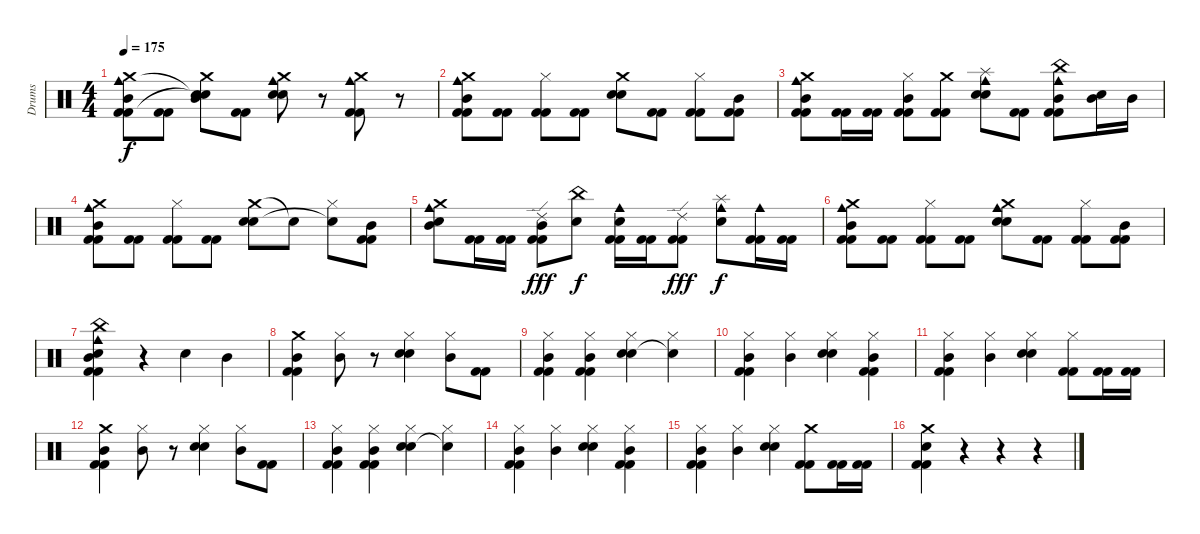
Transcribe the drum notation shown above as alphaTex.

\track ("Drums" "Drums") {instrument percussion}
\staff {score}
\articulation defaults
\ts (4 4)
\tempo 175
\clef neutral
\ks c
("Crash medium (hit)" "Mid Tom (hit)" "Cowbell medium (hit)" "Kick (hit) 2" "Kick (hit) 2").8{dy f} ("Kick (hit) 2" "Kick (hit) 2").8 ("Crash medium (hit)" "Mid Tom (hit)" "Snare (hit)"{t} "Snare (hit)"{t}).8 ("Kick (hit) 2" "Kick (hit) 2").8 ("Crash medium (hit)" "Electric Snare (hit)" "Snare (hit) 2" "Cowbell medium (hit)").8 r.8 ("Crash medium (hit)" "Cowbell medium (hit)" "Kick (hit) 2" "Kick (hit) 2").8 r.8 |
("Crash medium (hit)" "Mid Tom (hit)" "Cowbell medium (hit)" "Kick (hit) 2" "Kick (hit) 2").8 ("Kick (hit) 2" "Kick (hit) 2").8 ("Hi-Hat (closed)" "Kick (hit) 2" "Kick (hit) 2").8 ("Kick (hit) 2" "Kick (hit) 2").8 ("Crash medium (hit)" "Electric Snare (hit)" "Snare (hit) 2").8 ("Kick (hit) 2" "Kick (hit) 2").8 ("Hi-Hat (closed)" "Kick (hit) 2" "Kick (hit) 2").8 ("Mid Tom (hit)" "Kick (hit) 2" "Kick (hit) 2").8 |
("Crash medium (hit)" "Mid Tom (hit)" "Cowbell medium (hit)" "Kick (hit) 2" "Kick (hit) 2").8 ("Kick (hit) 2" "Kick (hit) 2").16 ("Kick (hit) 2" "Kick (hit) 2").16 ("Hi-Hat (closed)" "Mid Tom (hit)" "Kick (hit) 2" "Kick (hit) 2").8 ("Crash medium (hit)" "Kick (hit) 2" "Kick (hit) 2").8 ("Splash (hit)" "Electric Snare (hit)" "Snare (hit) 2" "Cowbell medium (hit)").8 ("Kick (hit) 2" "Kick (hit) 2").8 ("China (hit)" "Mid Tom (hit)" "Cowbell medium (hit)" "Kick (hit) 2" "Kick (hit) 2").8 ("Mid Tom (hit)" "Snare (hit) 2").16 "Mid Tom (hit)".16 |
("Crash medium (hit)" "Mid Tom (hit)" "Cowbell medium (hit)" "Kick (hit) 2" "Kick (hit) 2").8 ("Kick (hit) 2" "Kick (hit) 2").8 ("Hi-Hat (closed)" "Kick (hit) 2" "Kick (hit) 2").8 ("Kick (hit) 2" "Kick (hit) 2").8 ("Crash medium (hit)" "Electric Snare (hit)" "Snare (hit) 2").8 "Snare (hit)"{t}.8 ("Hi-Hat (closed)" "Snare (hit)"{t}).8 ("Mid Tom (hit)" "Kick (hit) 2" "Kick (hit) 2").8 |
("Crash medium (hit)" "Mid Tom (hit)" "Snare (hit) 2" "Cowbell medium (hit)").8 ("Kick (hit) 2" "Kick (hit) 2").16 ("Kick (hit) 2" "Kick (hit) 2").16 ("Ride (edge) 2" "Mid Tom (hit)" "Kick (hit) 2" "Kick (hit) 2").8{dy fff} ("China (hit)" "Snare (hit) 2").8{dy f} ("Electric Snare (hit)" "Cowbell medium (hit)" "Kick (hit) 2" "Kick (hit) 2").16 ("Kick (hit) 2" "Kick (hit) 2").16 ("Ride (edge) 2" "Kick (hit) 2" "Kick (hit) 2").8{dy fff} ("Splash (hit)" "Snare (hit) 2" "Cowbell medium (hit)").8{dy f} ("Cowbell medium (hit)" "Kick (hit) 2" "Kick (hit) 2").16 ("Kick (hit) 2" "Kick (hit) 2").16 |
("Crash medium (hit)" "Mid Tom (hit)" "Cowbell medium (hit)" "Kick (hit) 2" "Kick (hit) 2").8 ("Kick (hit) 2" "Kick (hit) 2").8 ("Hi-Hat (closed)" "Kick (hit) 2" "Kick (hit) 2").8 ("Kick (hit) 2" "Kick (hit) 2").8 ("Crash medium (hit)" "Electric Snare (hit)" "Snare (hit) 2" "Cowbell medium (hit)").8 ("Kick (hit) 2" "Kick (hit) 2").8 ("Hi-Hat (closed)" "Kick (hit) 2" "Kick (hit) 2").8 ("Mid Tom (hit)" "Kick (hit) 2" "Kick (hit) 2").8 |
("China (hit)" "Electric Snare (hit)" "Mid Tom (hit)" "Cowbell medium (hit)" "Kick (hit) 2" "Kick (hit) 2").4 r.4 "Electric Snare (hit)".4 "Mid Tom (hit)".4 |
("Crash medium (hit)" "Mid Tom (hit)" "Kick (hit) 2" "Kick (hit) 2").4 ("Hi-Hat (closed)" "Mid Tom (hit)").8 r.8 ("Hi-Hat (closed)" "Electric Snare (hit)" "Snare (hit) 2").4 ("Hi-Hat (closed)" "Mid Tom (hit)").8 ("Kick (hit) 2" "Kick (hit) 2").8 |
("Hi-Hat (closed)" "Mid Tom (hit)" "Kick (hit) 2" "Kick (hit) 2").4 ("Hi-Hat (closed)" "Mid Tom (hit)" "Kick (hit) 2" "Kick (hit) 2").4 ("Hi-Hat (closed)" "Electric Snare (hit)" "Snare (hit) 2").4 ("Hi-Hat (closed)" "Snare (hit)"{t}).4 |
("Hi-Hat (closed)" "Mid Tom (hit)" "Kick (hit) 2" "Kick (hit) 2").4 ("Hi-Hat (closed)" "Mid Tom (hit)").4 ("Hi-Hat (closed)" "Electric Snare (hit)" "Snare (hit) 2").4 ("Hi-Hat (closed)" "Mid Tom (hit)" "Kick (hit) 2" "Kick (hit) 2").4 |
("Hi-Hat (closed)" "Mid Tom (hit)" "Kick (hit) 2" "Kick (hit) 2").4 ("Hi-Hat (closed)" "Mid Tom (hit)").4 ("Hi-Hat (closed)" "Electric Snare (hit)" "Snare (hit) 2").4 ("Hi-Hat (closed)" "Kick (hit) 2" "Kick (hit) 2").8 ("Kick (hit) 2" "Kick (hit) 2").16 ("Kick (hit) 2" "Kick (hit) 2").16 |
("Crash medium (hit)" "Mid Tom (hit)" "Kick (hit) 2" "Kick (hit) 2").4 ("Hi-Hat (closed)" "Mid Tom (hit)").8 r.8 ("Hi-Hat (closed)" "Electric Snare (hit)" "Snare (hit) 2").4 ("Hi-Hat (closed)" "Mid Tom (hit)").8 ("Kick (hit) 2" "Kick (hit) 2").8 |
("Hi-Hat (closed)" "Mid Tom (hit)" "Kick (hit) 2" "Kick (hit) 2").4 ("Hi-Hat (closed)" "Mid Tom (hit)" "Kick (hit) 2" "Kick (hit) 2").4 ("Hi-Hat (closed)" "Electric Snare (hit)" "Snare (hit) 2").4 ("Hi-Hat (closed)" "Snare (hit)"{t}).4 |
("Hi-Hat (closed)" "Mid Tom (hit)" "Kick (hit) 2" "Kick (hit) 2").4 ("Hi-Hat (closed)" "Mid Tom (hit)").4 ("Hi-Hat (closed)" "Electric Snare (hit)" "Snare (hit) 2").4 ("Hi-Hat (closed)" "Mid Tom (hit)" "Kick (hit) 2" "Kick (hit) 2").4 |
("Hi-Hat (closed)" "Mid Tom (hit)" "Kick (hit) 2" "Kick (hit) 2").4 ("Hi-Hat (closed)" "Mid Tom (hit)").4 ("Hi-Hat (closed)" "Electric Snare (hit)" "Snare (hit) 2").4 ("Crash medium (hit)" "Kick (hit) 2" "Kick (hit) 2").8 ("Kick (hit) 2" "Kick (hit) 2").16 ("Kick (hit) 2" "Kick (hit) 2").16 |
("Crash medium (hit)" "Electric Snare (hit)" "Kick (hit) 2" "Kick (hit) 2").4 r.4 r.4 r.4
